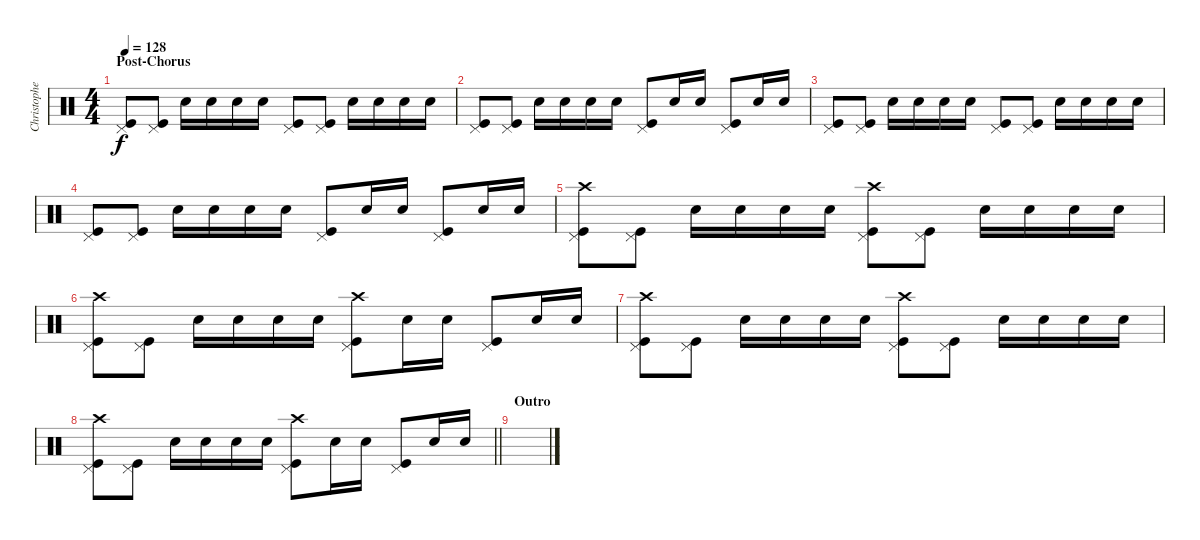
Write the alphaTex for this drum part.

\track ("Christopher - Drums" "Christophe") {instrument percussion}
\staff {score}
\articulation defaults
\ts (4 4)
\section ("" "Post-Chorus")
\tempo 128
\clef neutral
\ks c
("Pedal Hi-Hat (hit)" "Kick (hit)").8{dy f} ("Pedal Hi-Hat (hit)" "Kick (hit)").8 "Snare (hit) 2".16 "Snare (hit) 2".16 "Snare (hit) 2".16 "Snare (hit) 2".16 ("Pedal Hi-Hat (hit)" "Kick (hit)").8 ("Pedal Hi-Hat (hit)" "Kick (hit)").8 "Snare (hit) 2".16 "Snare (hit) 2".16 "Snare (hit) 2".16 "Snare (hit) 2".16 |
("Pedal Hi-Hat (hit)" "Kick (hit)").8 ("Pedal Hi-Hat (hit)" "Kick (hit)").8 "Snare (hit) 2".16 "Snare (hit) 2".16 "Snare (hit) 2".16 "Snare (hit) 2".16 ("Pedal Hi-Hat (hit)" "Kick (hit)").8 "Snare (hit) 2".16 "Snare (hit) 2".16 ("Pedal Hi-Hat (hit)" "Kick (hit)").8 "Snare (hit) 2".16 "Snare (hit) 2".16 |
("Pedal Hi-Hat (hit)" "Kick (hit)").8 ("Pedal Hi-Hat (hit)" "Kick (hit)").8 "Snare (hit) 2".16 "Snare (hit) 2".16 "Snare (hit) 2".16 "Snare (hit) 2".16 ("Pedal Hi-Hat (hit)" "Kick (hit)").8 ("Pedal Hi-Hat (hit)" "Kick (hit)").8 "Snare (hit) 2".16 "Snare (hit) 2".16 "Snare (hit) 2".16 "Snare (hit) 2".16 |
("Pedal Hi-Hat (hit)" "Kick (hit)").8 ("Pedal Hi-Hat (hit)" "Kick (hit)").8 "Snare (hit) 2".16 "Snare (hit) 2".16 "Snare (hit) 2".16 "Snare (hit) 2".16 ("Pedal Hi-Hat (hit)" "Kick (hit)").8 "Snare (hit) 2".16 "Snare (hit) 2".16 ("Pedal Hi-Hat (hit)" "Kick (hit)").8 "Snare (hit) 2".16 "Snare (hit) 2".16 |
("Crash high (hit)" "Pedal Hi-Hat (hit)" "Kick (hit)").8 ("Pedal Hi-Hat (hit)" "Kick (hit)").8 "Snare (hit) 2".16 "Snare (hit) 2".16 "Snare (hit) 2".16 "Snare (hit) 2".16 ("Crash high (hit)" "Pedal Hi-Hat (hit)" "Kick (hit)").8 ("Pedal Hi-Hat (hit)" "Kick (hit)").8 "Snare (hit) 2".16 "Snare (hit) 2".16 "Snare (hit) 2".16 "Snare (hit) 2".16 |
("Crash high (hit)" "Pedal Hi-Hat (hit)" "Kick (hit)").8 ("Pedal Hi-Hat (hit)" "Kick (hit)").8 "Snare (hit) 2".16 "Snare (hit) 2".16 "Snare (hit) 2".16 "Snare (hit) 2".16 ("Crash high (hit)" "Pedal Hi-Hat (hit)" "Kick (hit)").8 "Snare (hit) 2".16 "Snare (hit) 2".16 ("Pedal Hi-Hat (hit)" "Kick (hit)").8 "Snare (hit) 2".16 "Snare (hit) 2".16 |
("Crash high (hit)" "Pedal Hi-Hat (hit)" "Kick (hit)").8 ("Pedal Hi-Hat (hit)" "Kick (hit)").8 "Snare (hit) 2".16 "Snare (hit) 2".16 "Snare (hit) 2".16 "Snare (hit) 2".16 ("Crash high (hit)" "Pedal Hi-Hat (hit)" "Kick (hit)").8 ("Pedal Hi-Hat (hit)" "Kick (hit)").8 "Snare (hit) 2".16 "Snare (hit) 2".16 "Snare (hit) 2".16 "Snare (hit) 2".16 |
\barLineRight lightlight
("Crash high (hit)" "Pedal Hi-Hat (hit)" "Kick (hit)").8 ("Pedal Hi-Hat (hit)" "Kick (hit)").8 "Snare (hit) 2".16 "Snare (hit) 2".16 "Snare (hit) 2".16 "Snare (hit) 2".16 ("Crash high (hit)" "Pedal Hi-Hat (hit)" "Kick (hit)").8 "Snare (hit) 2".16 "Snare (hit) 2".16 ("Pedal Hi-Hat (hit)" "Kick (hit)").8 "Snare (hit) 2".16 "Snare (hit) 2".16 |
\section ("" "Outro")
